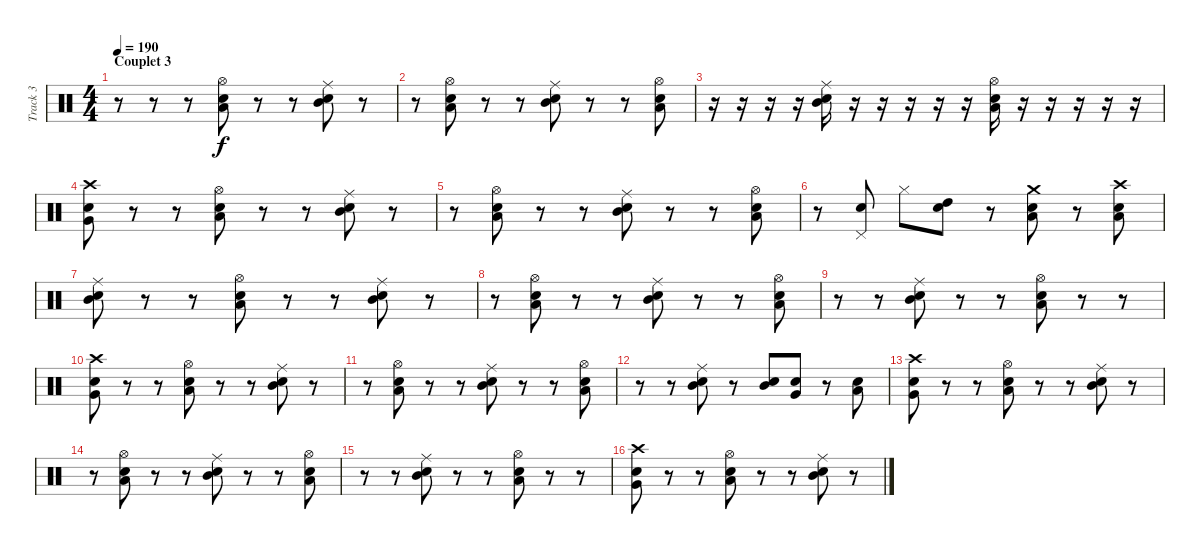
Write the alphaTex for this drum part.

\track ("Track 3" "Track 3") {instrument percussion}
\staff {score}
\articulation defaults
\ts (4 4)
\section ("" "Couplet 3")
\tempo 190
\clef neutral
\ks c
r.8{dy f} r.8 r.8 ("Low Tom (hit)" "Snare (hit) 2" "Hi-Hat (open)").8 r.8 r.8 ("Mid Tom (hit)" "Snare (hit) 2" "Ride (middle)").8 r.8 |
r.8 ("Low Tom (hit)" "Snare (hit) 2" "Hi-Hat (open)").8 r.8 r.8 ("Mid Tom (hit)" "Snare (hit) 2" "Ride (middle)").8 r.8 r.8 ("Low Tom (hit)" "Snare (hit) 2" "Hi-Hat (open)").8 |
r.16 r.16 r.16 r.16 ("Mid Tom (hit)" "Snare (hit) 2" "Ride (middle)").16 r.16 r.16 r.16 r.16 r.16 ("Low Tom (hit)" "Snare (hit) 2" "Hi-Hat (open)").16 r.16 r.16 r.16 r.16 r.16 |
("Very Low Tom (hit)" "Snare (hit) 2" "Crash high (hit)").8 r.8 r.8 ("Low Tom (hit)" "Snare (hit) 2" "Hi-Hat (open)").8 r.8 r.8 ("Mid Tom (hit)" "Snare (hit) 2" "Ride (middle)").8 r.8 |
r.8 ("Low Tom (hit)" "Snare (hit) 2" "Hi-Hat (open)").8 r.8 r.8 ("Mid Tom (hit)" "Snare (hit) 2" "Ride (middle)").8 r.8 r.8 ("Low Tom (hit)" "Snare (hit) 2" "Hi-Hat (open)").8 |
r.8 ("Pedal Hi-Hat (hit)" "Snare (hit) 2").8 "Hi-Hat (closed)".8 ("Electric Snare (hit)" "High Tom (hit)").8 r.8 ("Electric Snare (hit)" "Low Tom (hit)" "Crash medium (hit)").8 r.8 ("Low Tom (hit)" "Snare (hit) 2" "Crash high (hit)").8 |
("Mid Tom (hit)" "Snare (hit) 2" "Ride (middle)").8 r.8 r.8 ("Low Tom (hit)" "Snare (hit) 2" "Hi-Hat (open)").8 r.8 r.8 ("Mid Tom (hit)" "Snare (hit) 2" "Ride (middle)").8 r.8 |
r.8 ("Low Tom (hit)" "Snare (hit) 2" "Hi-Hat (open)").8 r.8 r.8 ("Mid Tom (hit)" "Snare (hit) 2" "Ride (middle)").8 r.8 r.8 ("Low Tom (hit)" "Snare (hit) 2" "Hi-Hat (open)").8 |
r.8 r.8 ("Mid Tom (hit)" "Snare (hit) 2" "Ride (middle)").8 r.8 r.8 ("Low Tom (hit)" "Snare (hit) 2" "Hi-Hat (open)").8 r.8 r.8 |
("Very Low Tom (hit)" "Snare (hit) 2" "Crash high (hit)").8 r.8 r.8 ("Low Tom (hit)" "Snare (hit) 2" "Hi-Hat (open)").8 r.8 r.8 ("Mid Tom (hit)" "Snare (hit) 2" "Ride (middle)").8 r.8 |
r.8 ("Low Tom (hit)" "Snare (hit) 2" "Hi-Hat (open)").8 r.8 r.8 ("Mid Tom (hit)" "Snare (hit) 2" "Ride (middle)").8 r.8 r.8 ("Low Tom (hit)" "Snare (hit) 2" "Hi-Hat (open)").8 |
r.8 r.8 ("Mid Tom (hit)" "Snare (hit) 2" "Ride (middle)").8 r.8 ("Mid Tom (hit)" "Electric Snare (hit)").8 ("Very Low Tom (hit)" "Snare (hit) 2").8 r.8 ("Low Tom (hit)" "Snare (hit) 2").8 |
("Very Low Tom (hit)" "Snare (hit) 2" "Crash high (hit)").8 r.8 r.8 ("Low Tom (hit)" "Snare (hit) 2" "Hi-Hat (open)").8 r.8 r.8 ("Mid Tom (hit)" "Snare (hit) 2" "Ride (middle)").8 r.8 |
r.8 ("Low Tom (hit)" "Snare (hit) 2" "Hi-Hat (open)").8 r.8 r.8 ("Mid Tom (hit)" "Snare (hit) 2" "Ride (middle)").8 r.8 r.8 ("Low Tom (hit)" "Snare (hit) 2" "Hi-Hat (open)").8 |
r.8 r.8 ("Mid Tom (hit)" "Snare (hit) 2" "Ride (middle)").8 r.8 r.8 ("Low Tom (hit)" "Snare (hit) 2" "Hi-Hat (open)").8 r.8 r.8 |
("Very Low Tom (hit)" "Snare (hit) 2" "Crash high (hit)").8 r.8 r.8 ("Low Tom (hit)" "Snare (hit) 2" "Hi-Hat (open)").8 r.8 r.8 ("Mid Tom (hit)" "Snare (hit) 2" "Ride (middle)").8 r.8
